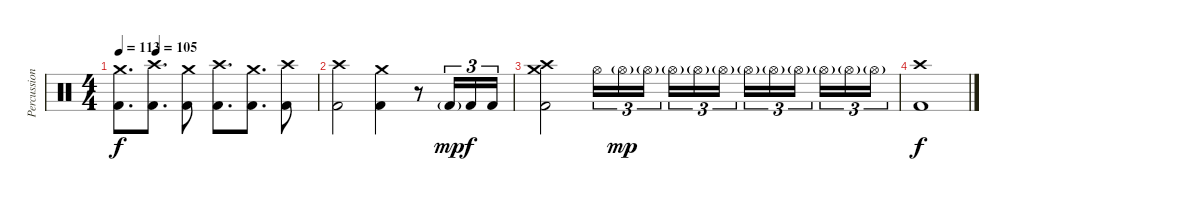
\track ("Percussion" "Percussion") {instrument percussion}
\staff {score}
\articulation defaults
\ts (4 4)
\tempo 113
\tempo (105 0.1875)
\clef neutral
\ks c
("Crash medium (hit)" "Kick (hit) 2").8{d dy f} ("Crash high (hit)" "Kick (hit) 2").8{d} ("Crash medium (hit)" "Kick (hit) 2").8 ("Crash high (hit)" "Kick (hit) 2").8{d} ("Crash medium (hit)" "Kick (hit) 2").8{d} ("Crash high (hit)" "Kick (hit) 2").8 |
("Crash high (hit)" "Kick (hit) 2").2 ("Crash medium (hit)" "Kick (hit) 2").4 r.8 "Kick (hit) 2"{g}.16{tu (3 2) dy mp} "Kick (hit) 2".16{tu (3 2) dy f} "Kick (hit) 2".16{tu (3 2)} |
("Crash high (hit)" "Crash medium (hit)" "Kick (hit) 2").2 "Hi-Hat (open)".16{tu (3 2)} "Hi-Hat (open)"{g}.16{tu (3 2) dy mp} "Hi-Hat (open)"{g}.16{tu (3 2) beam splitsecondary} "Hi-Hat (open)"{g}.16{tu (3 2)} "Hi-Hat (open)"{g}.16{tu (3 2)} "Hi-Hat (open)"{g}.16{tu (3 2)} "Hi-Hat (open)"{g}.16{tu (3 2)} "Hi-Hat (open)"{g}.16{tu (3 2)} "Hi-Hat (open)"{g}.16{tu (3 2) beam splitsecondary} "Hi-Hat (open)"{g}.16{tu (3 2)} "Hi-Hat (open)"{g}.16{tu (3 2)} "Hi-Hat (open)"{g}.16{tu (3 2)} |
("Crash high (hit)" "Kick (hit) 2").1{dy f}
